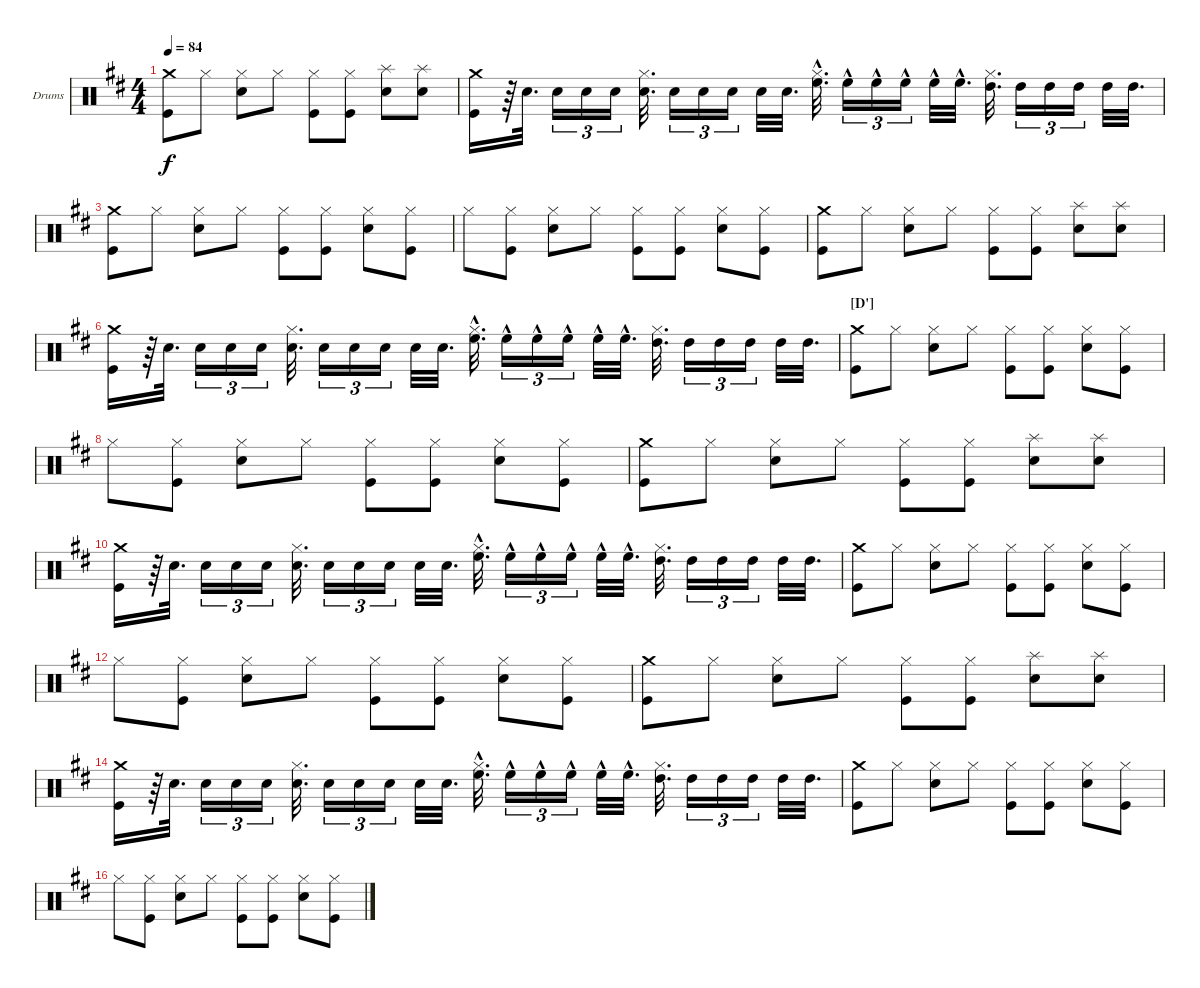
\bracketExtendMode nobrackets
\firstSystemTrackNameOrientation horizontal
\otherSystemsTrackNameOrientation horizontal
\defaultBarNumberDisplay FirstOfSystem
\track ("Drumkit" "Drums") {instrument percussion}
\staff {score}
\articulation defaults
\ts (4 4)
\tempo 84
\clef neutral
\ks d
("Kick (hit)" "Crash medium (hit)").8{dy f} "Hi-Hat (closed)".8 ("Snare (hit) 2" "Hi-Hat (closed)").8 "Hi-Hat (closed)".8 ("Kick (hit)" "Hi-Hat (closed)").8 ("Kick (hit)" "Hi-Hat (closed)").8 ("Snare (hit) 2" "Splash (hit)").8 ("Snare (hit) 2" "Splash (hit)").8 |
("Kick (hit)" "Crash medium (hit)").16 r.64 "Snare (hit) 2".32{d} "Snare (hit) 2".16{tu (3 2)} "Snare (hit) 2".16{tu (3 2)} "Snare (hit) 2".16{tu (3 2)} ("Snare (hit) 2" "Hi-Hat (closed)").32{d} "Snare (hit) 2".16{tu (3 2)} "Snare (hit) 2".16{tu (3 2)} "Snare (hit) 2".16{tu (3 2)} "Snare (hit) 2".32 "Snare (hit) 2".32{d} ("High Floor Tom (hit)"{hac} "Hi-Hat (closed)"{hac}).32{d} "High Floor Tom (hit)"{hac}.16{tu (3 2)} "High Floor Tom (hit)"{hac}.16{tu (3 2)} "High Floor Tom (hit)"{hac}.16{tu (3 2)} "High Floor Tom (hit)"{hac}.32 "High Floor Tom (hit)"{hac}.32{d} ("Hi-Hat (closed)" "High Tom (hit)").32{d} "High Tom (hit)".16{tu (3 2)} "High Tom (hit)".16{tu (3 2)} "High Tom (hit)".16{tu (3 2)} "High Tom (hit)".32 "High Tom (hit)".32{d} |
("Kick (hit)" "Crash medium (hit)").8 "Hi-Hat (closed)".8 ("Snare (hit) 2" "Hi-Hat (closed)").8 "Hi-Hat (closed)".8 ("Kick (hit)" "Hi-Hat (closed)").8 ("Kick (hit)" "Hi-Hat (closed)").8 ("Snare (hit) 2" "Hi-Hat (closed)").8 ("Kick (hit)" "Hi-Hat (closed)").8 |
"Hi-Hat (closed)".8 ("Kick (hit)" "Hi-Hat (closed)").8 ("Snare (hit) 2" "Hi-Hat (closed)").8 "Hi-Hat (closed)".8 ("Kick (hit)" "Hi-Hat (closed)").8 ("Kick (hit)" "Hi-Hat (closed)").8 ("Snare (hit) 2" "Hi-Hat (closed)").8 ("Kick (hit)" "Hi-Hat (closed)").8 |
("Kick (hit)" "Crash medium (hit)").8 "Hi-Hat (closed)".8 ("Snare (hit) 2" "Hi-Hat (closed)").8 "Hi-Hat (closed)".8 ("Kick (hit)" "Hi-Hat (closed)").8 ("Kick (hit)" "Hi-Hat (closed)").8 ("Snare (hit) 2" "Splash (hit)").8 ("Snare (hit) 2" "Splash (hit)").8 |
("Kick (hit)" "Crash medium (hit)").16 r.64 "Snare (hit) 2".32{d} "Snare (hit) 2".16{tu (3 2)} "Snare (hit) 2".16{tu (3 2)} "Snare (hit) 2".16{tu (3 2)} ("Snare (hit) 2" "Hi-Hat (closed)").32{d} "Snare (hit) 2".16{tu (3 2)} "Snare (hit) 2".16{tu (3 2)} "Snare (hit) 2".16{tu (3 2)} "Snare (hit) 2".32 "Snare (hit) 2".32{d} ("High Floor Tom (hit)"{hac} "Hi-Hat (closed)"{hac}).32{d} "High Floor Tom (hit)"{hac}.16{tu (3 2)} "High Floor Tom (hit)"{hac}.16{tu (3 2)} "High Floor Tom (hit)"{hac}.16{tu (3 2)} "High Floor Tom (hit)"{hac}.32 "High Floor Tom (hit)"{hac}.32{d} ("Hi-Hat (closed)" "High Tom (hit)").32{d} "High Tom (hit)".16{tu (3 2)} "High Tom (hit)".16{tu (3 2)} "High Tom (hit)".16{tu (3 2)} "High Tom (hit)".32 "High Tom (hit)".32{d} |
\section ("D'" "")
("Kick (hit)" "Crash medium (hit)").8 "Hi-Hat (closed)".8 ("Snare (hit) 2" "Hi-Hat (closed)").8 "Hi-Hat (closed)".8 ("Kick (hit)" "Hi-Hat (closed)").8 ("Kick (hit)" "Hi-Hat (closed)").8 ("Snare (hit) 2" "Hi-Hat (closed)").8 ("Kick (hit)" "Hi-Hat (closed)").8 |
"Hi-Hat (closed)".8 ("Kick (hit)" "Hi-Hat (closed)").8 ("Snare (hit) 2" "Hi-Hat (closed)").8 "Hi-Hat (closed)".8 ("Kick (hit)" "Hi-Hat (closed)").8 ("Kick (hit)" "Hi-Hat (closed)").8 ("Snare (hit) 2" "Hi-Hat (closed)").8 ("Kick (hit)" "Hi-Hat (closed)").8 |
("Kick (hit)" "Crash medium (hit)").8 "Hi-Hat (closed)".8 ("Snare (hit) 2" "Hi-Hat (closed)").8 "Hi-Hat (closed)".8 ("Kick (hit)" "Hi-Hat (closed)").8 ("Kick (hit)" "Hi-Hat (closed)").8 ("Snare (hit) 2" "Splash (hit)").8 ("Snare (hit) 2" "Splash (hit)").8 |
("Kick (hit)" "Crash medium (hit)").16 r.64 "Snare (hit) 2".32{d} "Snare (hit) 2".16{tu (3 2)} "Snare (hit) 2".16{tu (3 2)} "Snare (hit) 2".16{tu (3 2)} ("Snare (hit) 2" "Hi-Hat (closed)").32{d} "Snare (hit) 2".16{tu (3 2)} "Snare (hit) 2".16{tu (3 2)} "Snare (hit) 2".16{tu (3 2)} "Snare (hit) 2".32 "Snare (hit) 2".32{d} ("High Floor Tom (hit)"{hac} "Hi-Hat (closed)"{hac}).32{d} "High Floor Tom (hit)"{hac}.16{tu (3 2)} "High Floor Tom (hit)"{hac}.16{tu (3 2)} "High Floor Tom (hit)"{hac}.16{tu (3 2)} "High Floor Tom (hit)"{hac}.32 "High Floor Tom (hit)"{hac}.32{d} ("Hi-Hat (closed)" "High Tom (hit)").32{d} "High Tom (hit)".16{tu (3 2)} "High Tom (hit)".16{tu (3 2)} "High Tom (hit)".16{tu (3 2)} "High Tom (hit)".32 "High Tom (hit)".32{d} |
("Kick (hit)" "Crash medium (hit)").8 "Hi-Hat (closed)".8 ("Snare (hit) 2" "Hi-Hat (closed)").8 "Hi-Hat (closed)".8 ("Kick (hit)" "Hi-Hat (closed)").8 ("Kick (hit)" "Hi-Hat (closed)").8 ("Snare (hit) 2" "Hi-Hat (closed)").8 ("Kick (hit)" "Hi-Hat (closed)").8 |
"Hi-Hat (closed)".8 ("Kick (hit)" "Hi-Hat (closed)").8 ("Snare (hit) 2" "Hi-Hat (closed)").8 "Hi-Hat (closed)".8 ("Kick (hit)" "Hi-Hat (closed)").8 ("Kick (hit)" "Hi-Hat (closed)").8 ("Snare (hit) 2" "Hi-Hat (closed)").8 ("Kick (hit)" "Hi-Hat (closed)").8 |
("Kick (hit)" "Crash medium (hit)").8 "Hi-Hat (closed)".8 ("Snare (hit) 2" "Hi-Hat (closed)").8 "Hi-Hat (closed)".8 ("Kick (hit)" "Hi-Hat (closed)").8 ("Kick (hit)" "Hi-Hat (closed)").8 ("Snare (hit) 2" "Splash (hit)").8 ("Snare (hit) 2" "Splash (hit)").8 |
("Kick (hit)" "Crash medium (hit)").16 r.64 "Snare (hit) 2".32{d} "Snare (hit) 2".16{tu (3 2)} "Snare (hit) 2".16{tu (3 2)} "Snare (hit) 2".16{tu (3 2)} ("Snare (hit) 2" "Hi-Hat (closed)").32{d} "Snare (hit) 2".16{tu (3 2)} "Snare (hit) 2".16{tu (3 2)} "Snare (hit) 2".16{tu (3 2)} "Snare (hit) 2".32 "Snare (hit) 2".32{d} ("High Floor Tom (hit)"{hac} "Hi-Hat (closed)"{hac}).32{d} "High Floor Tom (hit)"{hac}.16{tu (3 2)} "High Floor Tom (hit)"{hac}.16{tu (3 2)} "High Floor Tom (hit)"{hac}.16{tu (3 2)} "High Floor Tom (hit)"{hac}.32 "High Floor Tom (hit)"{hac}.32{d} ("Hi-Hat (closed)" "High Tom (hit)").32{d} "High Tom (hit)".16{tu (3 2)} "High Tom (hit)".16{tu (3 2)} "High Tom (hit)".16{tu (3 2)} "High Tom (hit)".32 "High Tom (hit)".32{d} |
("Kick (hit)" "Crash medium (hit)").8 "Hi-Hat (closed)".8 ("Snare (hit) 2" "Hi-Hat (closed)").8 "Hi-Hat (closed)".8 ("Kick (hit)" "Hi-Hat (closed)").8 ("Kick (hit)" "Hi-Hat (closed)").8 ("Snare (hit) 2" "Hi-Hat (closed)").8 ("Kick (hit)" "Hi-Hat (closed)").8 |
"Hi-Hat (closed)".8 ("Kick (hit)" "Hi-Hat (closed)").8 ("Snare (hit) 2" "Hi-Hat (closed)").8 "Hi-Hat (closed)".8 ("Kick (hit)" "Hi-Hat (closed)").8 ("Kick (hit)" "Hi-Hat (closed)").8 ("Snare (hit) 2" "Hi-Hat (closed)").8 ("Kick (hit)" "Hi-Hat (closed)").8
